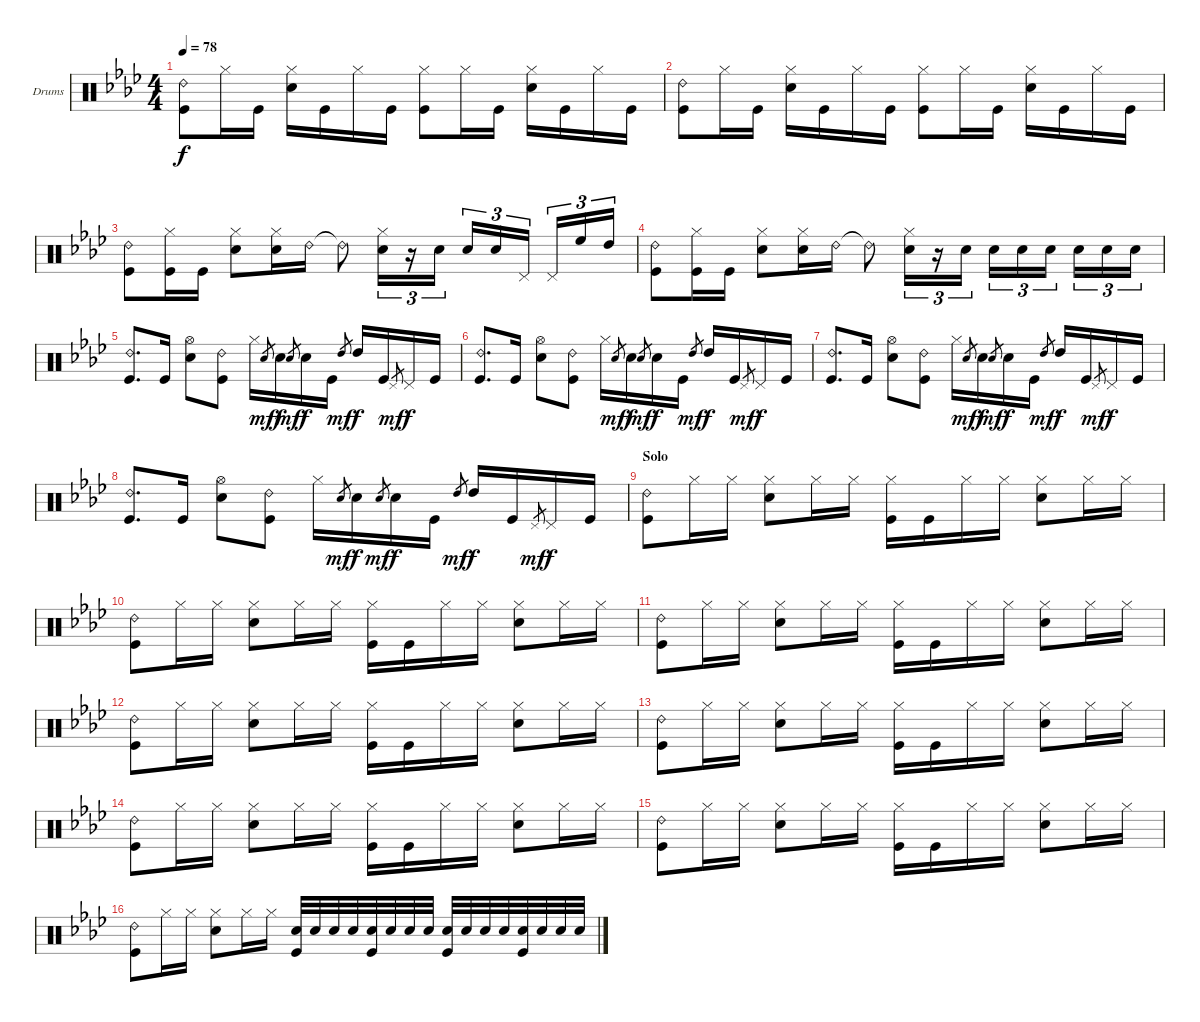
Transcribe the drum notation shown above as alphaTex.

\defaultSystemsLayout 4
\bracketExtendMode groupsimilarinstruments
\firstSystemTrackNameOrientation horizontal
\otherSystemsTrackNameOrientation horizontal
\track ("Drumkit" "Drums") {instrument percussion}
\staff {score}
\articulation defaults
\ts (4 4)
\tempo 78
\clef neutral
\ks ab
("Ride (bell) 2" "Kick (hit)").8{dy f} "Hi-Hat (closed)".16 "Kick (hit)".16 ("Hi-Hat (closed)" "Snare (hit) 2").16 "Kick (hit)".16 "Hi-Hat (closed)".16 "Kick (hit)".16 ("Hi-Hat (closed)" "Kick (hit)").8 "Hi-Hat (closed)".16 "Kick (hit)".16 ("Hi-Hat (closed)" "Snare (hit) 2").16 "Kick (hit)".16 "Hi-Hat (closed)".16 "Kick (hit)".16 |
("Ride (bell) 2" "Kick (hit)").8 "Hi-Hat (closed)".16 "Kick (hit)".16 ("Hi-Hat (closed)" "Snare (hit) 2").16 "Kick (hit)".16 "Hi-Hat (closed)".16 "Kick (hit)".16 ("Hi-Hat (closed)" "Kick (hit)").8 "Hi-Hat (closed)".16 "Kick (hit)".16 ("Hi-Hat (closed)" "Snare (hit) 2").16 "Kick (hit)".16 "Hi-Hat (closed)".16 "Kick (hit)".16 |
("Ride (bell) 2" "Kick (hit)").8 ("Hi-Hat (closed)" "Kick (hit)").16 "Kick (hit)".16 ("Hi-Hat (closed)" "Snare (hit) 2").8 ("Hi-Hat (closed)" "Snare (hit) 2").16 "Ride (bell) 2".16 "Ride (bell) 2"{t}.8 ("Hi-Hat (closed)" "Snare (hit) 2").16{tu (3 2)} r.16{tu (3 2)} "Snare (hit) 2".16{tu (3 2)} "Snare (hit) 2".16{tu (3 2)} "Snare (hit) 2".16{tu (3 2)} "Pedal Hi-Hat (hit)".16{tu (3 2)} "Pedal Hi-Hat (hit)".16{tu (3 2)} "High Floor Tom (hit)".16{tu (3 2)} "High Tom (hit)".16{tu (3 2)} |
("Ride (bell) 2" "Kick (hit)").8 ("Hi-Hat (closed)" "Kick (hit)").16 "Kick (hit)".16 ("Hi-Hat (closed)" "Snare (hit) 2").8 ("Hi-Hat (closed)" "Snare (hit) 2").16 "Ride (bell) 2".16 "Ride (bell) 2"{t}.8 ("Hi-Hat (closed)" "Snare (hit) 2").16{tu (3 2)} r.16{tu (3 2)} "Snare (hit) 2".16{tu (3 2)} "Snare (hit) 2".16{tu (3 2)} "Snare (hit) 2".16{tu (3 2)} "Snare (hit) 2".16{tu (3 2)} "Snare (hit) 2".16{tu (3 2)} "Snare (hit) 2".16{tu (3 2)} "Snare (hit) 2".16{tu (3 2)} |
("Ride (bell) 2" "Kick (hit)").8{d} "Kick (hit)".16 ("Hi-Hat (open)" "Snare (hit) 2").8 ("Ride (bell) 2" "Kick (hit)").8 "Hi-Hat (closed)".16 "Snare (hit) 2".8{gr dy mf} "Snare (hit) 2".16{dy f} "Snare (hit) 2".8{gr dy mf} "Snare (hit) 2".16{dy f} "Kick (hit)".16 "High Tom (hit)".8{gr dy mf} "High Tom (hit)".16{dy f} "Kick (hit)".16 "Pedal Hi-Hat (hit)".8{gr dy mf} "Pedal Hi-Hat (hit)".16{dy f} "Kick (hit)".16 |
("Ride (bell) 2" "Kick (hit)").8{d} "Kick (hit)".16 ("Hi-Hat (open)" "Snare (hit) 2").8 ("Ride (bell) 2" "Kick (hit)").8 "Hi-Hat (closed)".16 "Snare (hit) 2".8{gr dy mf} "Snare (hit) 2".16{dy f} "Snare (hit) 2".8{gr dy mf} "Snare (hit) 2".16{dy f} "Kick (hit)".16 "High Tom (hit)".8{gr dy mf} "High Tom (hit)".16{dy f} "Kick (hit)".16 "Pedal Hi-Hat (hit)".8{gr dy mf} "Pedal Hi-Hat (hit)".16{dy f} "Kick (hit)".16 |
("Ride (bell) 2" "Kick (hit)").8{d} "Kick (hit)".16 ("Hi-Hat (open)" "Snare (hit) 2").8 ("Ride (bell) 2" "Kick (hit)").8 "Hi-Hat (closed)".16 "Snare (hit) 2".8{gr dy mf} "Snare (hit) 2".16{dy f} "Snare (hit) 2".8{gr dy mf} "Snare (hit) 2".16{dy f} "Kick (hit)".16 "High Tom (hit)".8{gr dy mf} "High Tom (hit)".16{dy f} "Kick (hit)".16 "Pedal Hi-Hat (hit)".8{gr dy mf} "Pedal Hi-Hat (hit)".16{dy f} "Kick (hit)".16 |
("Ride (bell) 2" "Kick (hit)").8{d} "Kick (hit)".16 ("Hi-Hat (open)" "Snare (hit) 2").8 ("Ride (bell) 2" "Kick (hit)").8 "Hi-Hat (closed)".16 "Snare (hit) 2".8{gr dy mf} "Snare (hit) 2".16{dy f} "Snare (hit) 2".8{gr dy mf} "Snare (hit) 2".16{dy f} "Kick (hit)".16 "High Tom (hit)".8{gr dy mf} "High Tom (hit)".16{dy f} "Kick (hit)".16 "Pedal Hi-Hat (hit)".8{gr dy mf} "Pedal Hi-Hat (hit)".16{dy f} "Kick (hit)".16 |
\section ("" "Solo")
("Ride (bell) 2" "Kick (hit)").8 "Hi-Hat (closed)".16 "Hi-Hat (closed)".16 ("Hi-Hat (closed)" "Snare (hit) 2").8 "Hi-Hat (closed)".16 "Hi-Hat (closed)".16 ("Hi-Hat (closed)" "Kick (hit)").16 "Kick (hit)".16 "Hi-Hat (closed)".16 "Hi-Hat (closed)".16 ("Hi-Hat (closed)" "Snare (hit) 2").8 "Hi-Hat (closed)".16 "Hi-Hat (closed)".16 |
("Ride (bell) 2" "Kick (hit)").8 "Hi-Hat (closed)".16 "Hi-Hat (closed)".16 ("Hi-Hat (closed)" "Snare (hit) 2").8 "Hi-Hat (closed)".16 "Hi-Hat (closed)".16 ("Hi-Hat (closed)" "Kick (hit)").16 "Kick (hit)".16 "Hi-Hat (closed)".16 "Hi-Hat (closed)".16 ("Hi-Hat (closed)" "Snare (hit) 2").8 "Hi-Hat (closed)".16 "Hi-Hat (closed)".16 |
("Ride (bell) 2" "Kick (hit)").8 "Hi-Hat (closed)".16 "Hi-Hat (closed)".16 ("Hi-Hat (closed)" "Snare (hit) 2").8 "Hi-Hat (closed)".16 "Hi-Hat (closed)".16 ("Hi-Hat (closed)" "Kick (hit)").16 "Kick (hit)".16 "Hi-Hat (closed)".16 "Hi-Hat (closed)".16 ("Hi-Hat (closed)" "Snare (hit) 2").8 "Hi-Hat (closed)".16 "Hi-Hat (closed)".16 |
("Ride (bell) 2" "Kick (hit)").8 "Hi-Hat (closed)".16 "Hi-Hat (closed)".16 ("Hi-Hat (closed)" "Snare (hit) 2").8 "Hi-Hat (closed)".16 "Hi-Hat (closed)".16 ("Hi-Hat (closed)" "Kick (hit)").16 "Kick (hit)".16 "Hi-Hat (closed)".16 "Hi-Hat (closed)".16 ("Hi-Hat (closed)" "Snare (hit) 2").8 "Hi-Hat (closed)".16 "Hi-Hat (closed)".16 |
("Ride (bell) 2" "Kick (hit)").8 "Hi-Hat (closed)".16 "Hi-Hat (closed)".16 ("Hi-Hat (closed)" "Snare (hit) 2").8 "Hi-Hat (closed)".16 "Hi-Hat (closed)".16 ("Hi-Hat (closed)" "Kick (hit)").16 "Kick (hit)".16 "Hi-Hat (closed)".16 "Hi-Hat (closed)".16 ("Hi-Hat (closed)" "Snare (hit) 2").8 "Hi-Hat (closed)".16 "Hi-Hat (closed)".16 |
("Ride (bell) 2" "Kick (hit)").8 "Hi-Hat (closed)".16 "Hi-Hat (closed)".16 ("Hi-Hat (closed)" "Snare (hit) 2").8 "Hi-Hat (closed)".16 "Hi-Hat (closed)".16 ("Hi-Hat (closed)" "Kick (hit)").16 "Kick (hit)".16 "Hi-Hat (closed)".16 "Hi-Hat (closed)".16 ("Hi-Hat (closed)" "Snare (hit) 2").8 "Hi-Hat (closed)".16 "Hi-Hat (closed)".16 |
("Ride (bell) 2" "Kick (hit)").8 "Hi-Hat (closed)".16 "Hi-Hat (closed)".16 ("Hi-Hat (closed)" "Snare (hit) 2").8 "Hi-Hat (closed)".16 "Hi-Hat (closed)".16 ("Hi-Hat (closed)" "Kick (hit)").16 "Kick (hit)".16 "Hi-Hat (closed)".16 "Hi-Hat (closed)".16 ("Hi-Hat (closed)" "Snare (hit) 2").8 "Hi-Hat (closed)".16 "Hi-Hat (closed)".16 |
("Ride (bell) 2" "Kick (hit)").8 "Hi-Hat (closed)".16 "Hi-Hat (closed)".16 ("Hi-Hat (closed)" "Snare (hit) 2").8 "Hi-Hat (closed)".16 "Hi-Hat (closed)".16 ("Snare (hit) 2" "Kick (hit)").32 "Snare (hit) 2".32 "Snare (hit) 2".32 "Snare (hit) 2".32 ("Snare (hit) 2" "Kick (hit)").32 "Snare (hit) 2".32 "Snare (hit) 2".32 "Snare (hit) 2".32 ("Snare (hit) 2" "Kick (hit)").32 "Snare (hit) 2".32 "Snare (hit) 2".32 "Snare (hit) 2".32 ("Snare (hit) 2" "Kick (hit)").32 "Snare (hit) 2".32 "Snare (hit) 2".32 "Snare (hit) 2".32
